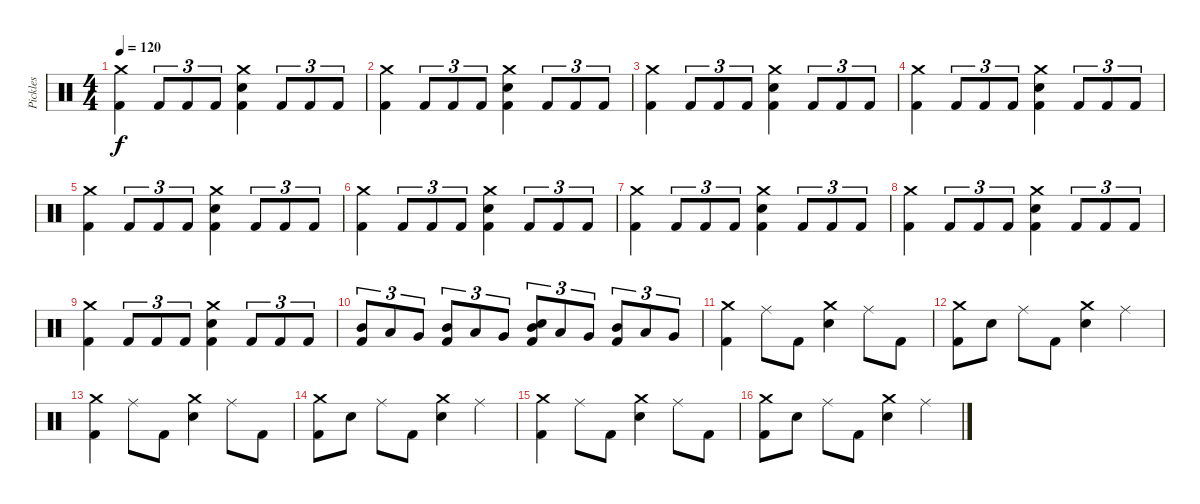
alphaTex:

\track ("Pickles" "Pickles") {instrument percussion}
\staff {score}
\articulation defaults
\ts (4 4)
\tempo 120
\clef neutral
\ks c
("Crash medium (hit)" "Kick (hit) 2").4{dy f} "Kick (hit) 2".8{tu (3 2)} "Kick (hit) 2".8{tu (3 2)} "Kick (hit) 2".8{tu (3 2)} ("Crash medium (hit)" "Electric Snare (hit)" "Kick (hit) 2").4 "Kick (hit) 2".8{tu (3 2)} "Kick (hit) 2".8{tu (3 2)} "Kick (hit) 2".8{tu (3 2)} |
("Crash medium (hit)" "Kick (hit) 2").4 "Kick (hit) 2".8{tu (3 2)} "Kick (hit) 2".8{tu (3 2)} "Kick (hit) 2".8{tu (3 2)} ("Crash medium (hit)" "Electric Snare (hit)" "Kick (hit) 2").4 "Kick (hit) 2".8{tu (3 2)} "Kick (hit) 2".8{tu (3 2)} "Kick (hit) 2".8{tu (3 2)} |
("Crash medium (hit)" "Kick (hit) 2").4 "Kick (hit) 2".8{tu (3 2)} "Kick (hit) 2".8{tu (3 2)} "Kick (hit) 2".8{tu (3 2)} ("Crash medium (hit)" "Electric Snare (hit)" "Kick (hit) 2").4 "Kick (hit) 2".8{tu (3 2)} "Kick (hit) 2".8{tu (3 2)} "Kick (hit) 2".8{tu (3 2)} |
("Crash medium (hit)" "Kick (hit) 2").4 "Kick (hit) 2".8{tu (3 2)} "Kick (hit) 2".8{tu (3 2)} "Kick (hit) 2".8{tu (3 2)} ("Crash medium (hit)" "Electric Snare (hit)" "Kick (hit) 2").4 "Kick (hit) 2".8{tu (3 2)} "Kick (hit) 2".8{tu (3 2)} "Kick (hit) 2".8{tu (3 2)} |
("Crash medium (hit)" "Kick (hit) 2").4 "Kick (hit) 2".8{tu (3 2)} "Kick (hit) 2".8{tu (3 2)} "Kick (hit) 2".8{tu (3 2)} ("Crash medium (hit)" "Electric Snare (hit)" "Kick (hit) 2").4 "Kick (hit) 2".8{tu (3 2)} "Kick (hit) 2".8{tu (3 2)} "Kick (hit) 2".8{tu (3 2)} |
("Crash medium (hit)" "Kick (hit) 2").4 "Kick (hit) 2".8{tu (3 2)} "Kick (hit) 2".8{tu (3 2)} "Kick (hit) 2".8{tu (3 2)} ("Crash medium (hit)" "Electric Snare (hit)" "Kick (hit) 2").4 "Kick (hit) 2".8{tu (3 2)} "Kick (hit) 2".8{tu (3 2)} "Kick (hit) 2".8{tu (3 2)} |
("Crash medium (hit)" "Kick (hit) 2").4 "Kick (hit) 2".8{tu (3 2)} "Kick (hit) 2".8{tu (3 2)} "Kick (hit) 2".8{tu (3 2)} ("Crash medium (hit)" "Electric Snare (hit)" "Kick (hit) 2").4 "Kick (hit) 2".8{tu (3 2)} "Kick (hit) 2".8{tu (3 2)} "Kick (hit) 2".8{tu (3 2)} |
("Crash medium (hit)" "Kick (hit) 2").4 "Kick (hit) 2".8{tu (3 2)} "Kick (hit) 2".8{tu (3 2)} "Kick (hit) 2".8{tu (3 2)} ("Crash medium (hit)" "Electric Snare (hit)" "Kick (hit) 2").4 "Kick (hit) 2".8{tu (3 2)} "Kick (hit) 2".8{tu (3 2)} "Kick (hit) 2".8{tu (3 2)} |
("Crash medium (hit)" "Kick (hit) 2").4 "Kick (hit) 2".8{tu (3 2)} "Kick (hit) 2".8{tu (3 2)} "Kick (hit) 2".8{tu (3 2)} ("Crash medium (hit)" "Electric Snare (hit)" "Kick (hit) 2").4 "Kick (hit) 2".8{tu (3 2)} "Kick (hit) 2".8{tu (3 2)} "Kick (hit) 2".8{tu (3 2)} |
("Mid Tom (hit)" "Kick (hit) 2").8{tu (3 2)} "Low Tom (hit)".8{tu (3 2)} "Very Low Tom (hit)".8{tu (3 2)} ("Mid Tom (hit)" "Kick (hit) 2").8{tu (3 2)} "Low Tom (hit)".8{tu (3 2)} "Very Low Tom (hit)".8{tu (3 2)} ("Mid Tom (hit)" "Electric Snare (hit)" "Kick (hit) 2").8{tu (3 2)} "Low Tom (hit)".8{tu (3 2)} "Very Low Tom (hit)".8{tu (3 2)} ("Mid Tom (hit)" "Kick (hit) 2").8{tu (3 2)} "Low Tom (hit)".8{tu (3 2)} "Very Low Tom (hit)".8{tu (3 2)} |
("Crash medium (hit)" "Kick (hit) 2").4 "Ride (middle)".8 "Kick (hit) 2".8 ("Crash medium (hit)" "Electric Snare (hit)").4 "Ride (middle)".8 "Kick (hit) 2".8 |
("Crash medium (hit)" "Kick (hit) 2").8 "Electric Snare (hit)".8 "Ride (middle)".8 "Kick (hit) 2".8 ("Crash medium (hit)" "Electric Snare (hit)").4 "Ride (middle)".4 |
("Crash medium (hit)" "Kick (hit) 2").4 "Ride (middle)".8 "Kick (hit) 2".8 ("Crash medium (hit)" "Electric Snare (hit)").4 "Ride (middle)".8 "Kick (hit) 2".8 |
("Crash medium (hit)" "Kick (hit) 2").8 "Electric Snare (hit)".8 "Ride (middle)".8 "Kick (hit) 2".8 ("Crash medium (hit)" "Electric Snare (hit)").4 "Ride (middle)".4 |
("Crash medium (hit)" "Kick (hit) 2").4 "Ride (middle)".8 "Kick (hit) 2".8 ("Crash medium (hit)" "Electric Snare (hit)").4 "Ride (middle)".8 "Kick (hit) 2".8 |
("Crash medium (hit)" "Kick (hit) 2").8 "Electric Snare (hit)".8 "Ride (middle)".8 "Kick (hit) 2".8 ("Crash medium (hit)" "Electric Snare (hit)").4 "Ride (middle)".4
